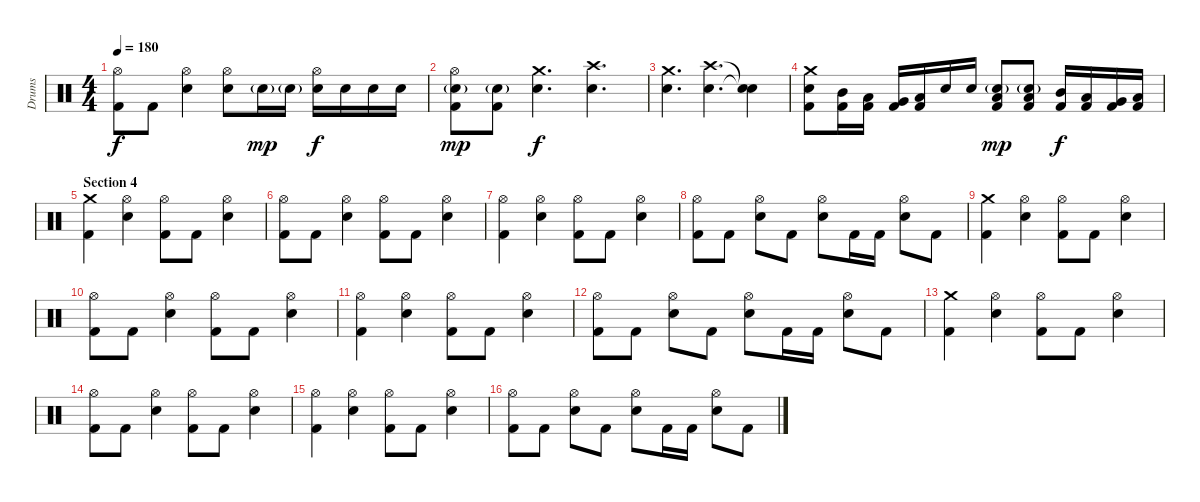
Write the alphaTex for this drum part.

\track ("Drums" "Drums") {instrument percussion}
\staff {score}
\articulation defaults
\ts (4 4)
\tempo 180
\clef neutral
\ks c
("Hi-Hat (open)" "Kick (hit) 2").8{dy f} "Kick (hit) 2".8 ("Hi-Hat (open)" "Electric Snare (hit)").4 ("Hi-Hat (open)" "Electric Snare (hit)").8 "Electric Snare (hit)"{g}.16{dy mp} "Electric Snare (hit)"{g}.16 ("Hi-Hat (open)" "Electric Snare (hit)").16{dy f} "Electric Snare (hit)".16 "Electric Snare (hit)".16 "Electric Snare (hit)".16 |
("Hi-Hat (open)" "Electric Snare (hit)"{g} "Kick (hit) 2").8{dy mp} ("Electric Snare (hit)"{g} "Kick (hit) 2").8 ("Crash medium (hit)" "Electric Snare (hit)").4{d dy f} ("Crash high (hit)" "Electric Snare (hit)").4{d} |
("Crash medium (hit)" "Electric Snare (hit)").4{d} ("Crash high (hit)" "Electric Snare (hit)").4{d} ("Snare (hit)"{t} "Snare (hit)"{t}).4 |
("Crash medium (hit)" "Electric Snare (hit)" "Kick (hit) 2").8 ("Mid Tom (hit)" "Kick (hit) 2").16 ("Low Tom (hit)" "Kick (hit) 2").16 ("Very Low Tom (hit)" "Kick (hit) 2").16 ("Low Floor Tom (hit)" "Kick (hit) 2").16 "Electric Snare (hit)".16 "Electric Snare (hit)".16 ("Low Floor Tom (hit)" "Electric Snare (hit)"{g} "Kick (hit) 2").8{dy mp} ("Low Floor Tom (hit)" "Electric Snare (hit)"{g} "Kick (hit) 2").8 ("Mid Tom (hit)" "Kick (hit) 2").16{dy f} ("Low Tom (hit)" "Kick (hit) 2").16 ("Very Low Tom (hit)" "Kick (hit) 2").16 ("Low Floor Tom (hit)" "Kick (hit) 2").16 |
\section ("" "Section 4")
("Crash medium (hit)" "Kick (hit) 2").4 ("Hi-Hat (open)" "Electric Snare (hit)").4 ("Hi-Hat (open)" "Kick (hit) 2").8 "Kick (hit) 2".8 ("Hi-Hat (open)" "Electric Snare (hit)").4 |
("Hi-Hat (open)" "Kick (hit) 2").8 "Kick (hit) 2".8 ("Hi-Hat (open)" "Electric Snare (hit)").4 ("Hi-Hat (open)" "Kick (hit) 2").8 "Kick (hit) 2".8 ("Hi-Hat (open)" "Electric Snare (hit)").4 |
("Hi-Hat (open)" "Kick (hit) 2").4 ("Hi-Hat (open)" "Electric Snare (hit)").4 ("Hi-Hat (open)" "Kick (hit) 2").8 "Kick (hit) 2".8 ("Hi-Hat (open)" "Electric Snare (hit)").4 |
("Hi-Hat (open)" "Kick (hit) 2").8 "Kick (hit) 2".8 ("Hi-Hat (open)" "Electric Snare (hit)").8 "Kick (hit) 2".8 ("Hi-Hat (open)" "Electric Snare (hit)").8 "Kick (hit) 2".16 "Kick (hit) 2".16 ("Hi-Hat (open)" "Electric Snare (hit)").8 "Kick (hit) 2".8 |
("Crash medium (hit)" "Kick (hit) 2").4 ("Hi-Hat (open)" "Electric Snare (hit)").4 ("Hi-Hat (open)" "Kick (hit) 2").8 "Kick (hit) 2".8 ("Hi-Hat (open)" "Electric Snare (hit)").4 |
("Hi-Hat (open)" "Kick (hit) 2").8 "Kick (hit) 2".8 ("Hi-Hat (open)" "Electric Snare (hit)").4 ("Hi-Hat (open)" "Kick (hit) 2").8 "Kick (hit) 2".8 ("Hi-Hat (open)" "Electric Snare (hit)").4 |
("Hi-Hat (open)" "Kick (hit) 2").4 ("Hi-Hat (open)" "Electric Snare (hit)").4 ("Hi-Hat (open)" "Kick (hit) 2").8 "Kick (hit) 2".8 ("Hi-Hat (open)" "Electric Snare (hit)").4 |
("Hi-Hat (open)" "Kick (hit) 2").8 "Kick (hit) 2".8 ("Hi-Hat (open)" "Electric Snare (hit)").8 "Kick (hit) 2".8 ("Hi-Hat (open)" "Electric Snare (hit)").8 "Kick (hit) 2".16 "Kick (hit) 2".16 ("Hi-Hat (open)" "Electric Snare (hit)").8 "Kick (hit) 2".8 |
("Crash medium (hit)" "Kick (hit) 2").4 ("Hi-Hat (open)" "Electric Snare (hit)").4 ("Hi-Hat (open)" "Kick (hit) 2").8 "Kick (hit) 2".8 ("Hi-Hat (open)" "Electric Snare (hit)").4 |
("Hi-Hat (open)" "Kick (hit) 2").8 "Kick (hit) 2".8 ("Hi-Hat (open)" "Electric Snare (hit)").4 ("Hi-Hat (open)" "Kick (hit) 2").8 "Kick (hit) 2".8 ("Hi-Hat (open)" "Electric Snare (hit)").4 |
("Hi-Hat (open)" "Kick (hit) 2").4 ("Hi-Hat (open)" "Electric Snare (hit)").4 ("Hi-Hat (open)" "Kick (hit) 2").8 "Kick (hit) 2".8 ("Hi-Hat (open)" "Electric Snare (hit)").4 |
("Hi-Hat (open)" "Kick (hit) 2").8 "Kick (hit) 2".8 ("Hi-Hat (open)" "Electric Snare (hit)").8 "Kick (hit) 2".8 ("Hi-Hat (open)" "Electric Snare (hit)").8 "Kick (hit) 2".16 "Kick (hit) 2".16 ("Hi-Hat (open)" "Electric Snare (hit)").8 "Kick (hit) 2".8
